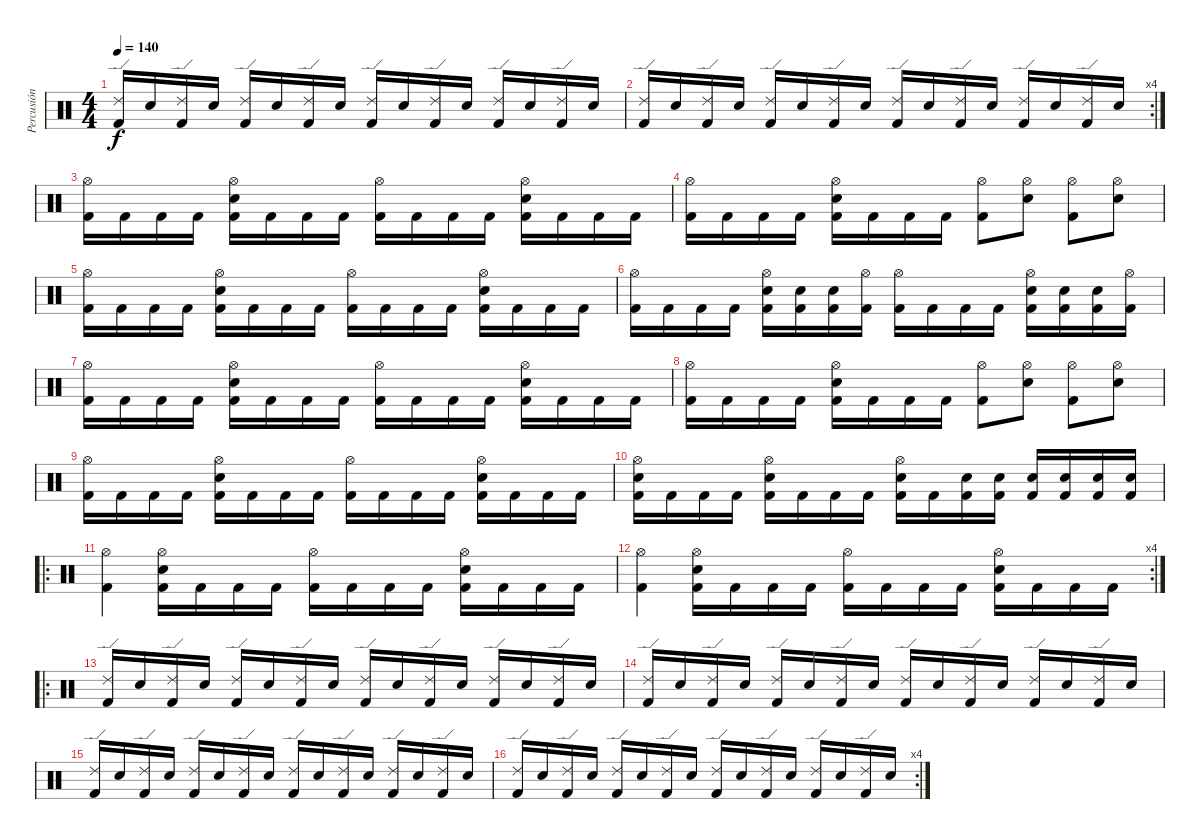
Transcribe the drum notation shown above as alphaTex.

\track ("Percusión" "Percusión") {instrument percussion}
\staff {score}
\articulation defaults
\ts (4 4)
\tempo 140
\clef neutral
\ks c
("Kick (hit) 2" "Ride (edge) 2").16{dy f} "Electric Snare (hit)".16 ("Kick (hit) 2" "Ride (edge) 2").16 "Electric Snare (hit)".16 ("Kick (hit) 2" "Ride (edge) 2").16 "Electric Snare (hit)".16 ("Kick (hit) 2" "Ride (edge) 2").16 "Electric Snare (hit)".16 ("Kick (hit) 2" "Ride (edge) 2").16 "Electric Snare (hit)".16 ("Kick (hit) 2" "Ride (edge) 2").16 "Electric Snare (hit)".16 ("Kick (hit) 2" "Ride (edge) 2").16 "Electric Snare (hit)".16 ("Kick (hit) 2" "Ride (edge) 2").16 "Electric Snare (hit)".16 |
\rc 4
("Kick (hit) 2" "Ride (edge) 2").16 "Electric Snare (hit)".16 ("Kick (hit) 2" "Ride (edge) 2").16 "Electric Snare (hit)".16 ("Kick (hit) 2" "Ride (edge) 2").16 "Electric Snare (hit)".16 ("Kick (hit) 2" "Ride (edge) 2").16 "Electric Snare (hit)".16 ("Kick (hit) 2" "Ride (edge) 2").16 "Electric Snare (hit)".16 ("Kick (hit) 2" "Ride (edge) 2").16 "Electric Snare (hit)".16 ("Kick (hit) 2" "Ride (edge) 2").16 "Electric Snare (hit)".16 ("Kick (hit) 2" "Ride (edge) 2").16 "Electric Snare (hit)".16 |
("Kick (hit) 2" "Hi-Hat (open)").16 "Kick (hit) 2".16 "Kick (hit) 2".16 "Kick (hit) 2".16 ("Kick (hit) 2" "Electric Snare (hit)" "Hi-Hat (open)").16 "Kick (hit) 2".16 "Kick (hit) 2".16 "Kick (hit) 2".16 ("Kick (hit) 2" "Hi-Hat (open)").16 "Kick (hit) 2".16 "Kick (hit) 2".16 "Kick (hit) 2".16 ("Kick (hit) 2" "Electric Snare (hit)" "Hi-Hat (open)").16 "Kick (hit) 2".16 "Kick (hit) 2".16 "Kick (hit) 2".16 |
("Kick (hit) 2" "Hi-Hat (open)").16 "Kick (hit) 2".16 "Kick (hit) 2".16 "Kick (hit) 2".16 ("Kick (hit) 2" "Electric Snare (hit)" "Hi-Hat (open)").16 "Kick (hit) 2".16 "Kick (hit) 2".16 "Kick (hit) 2".16 ("Kick (hit) 2" "Hi-Hat (open)").8 ("Electric Snare (hit)" "Hi-Hat (open)").8 ("Kick (hit) 2" "Hi-Hat (open)").8 ("Electric Snare (hit)" "Hi-Hat (open)").8 |
("Kick (hit) 2" "Hi-Hat (open)").16 "Kick (hit) 2".16 "Kick (hit) 2".16 "Kick (hit) 2".16 ("Kick (hit) 2" "Electric Snare (hit)" "Hi-Hat (open)").16 "Kick (hit) 2".16 "Kick (hit) 2".16 "Kick (hit) 2".16 ("Kick (hit) 2" "Hi-Hat (open)").16 "Kick (hit) 2".16 "Kick (hit) 2".16 "Kick (hit) 2".16 ("Kick (hit) 2" "Electric Snare (hit)" "Hi-Hat (open)").16 "Kick (hit) 2".16 "Kick (hit) 2".16 "Kick (hit) 2".16 |
("Kick (hit) 2" "Hi-Hat (open)").16 "Kick (hit) 2".16 "Kick (hit) 2".16 "Kick (hit) 2".16 ("Kick (hit) 2" "Electric Snare (hit)" "Hi-Hat (open)").16 ("Kick (hit) 2" "Electric Snare (hit)").16 ("Kick (hit) 2" "Electric Snare (hit)").16 ("Kick (hit) 2" "Hi-Hat (open)").16 ("Kick (hit) 2" "Hi-Hat (open)").16 "Kick (hit) 2".16 "Kick (hit) 2".16 "Kick (hit) 2".16 ("Kick (hit) 2" "Electric Snare (hit)" "Hi-Hat (open)").16 ("Kick (hit) 2" "Electric Snare (hit)").16 ("Kick (hit) 2" "Electric Snare (hit)").16 ("Kick (hit) 2" "Hi-Hat (open)").16 |
("Kick (hit) 2" "Hi-Hat (open)").16 "Kick (hit) 2".16 "Kick (hit) 2".16 "Kick (hit) 2".16 ("Kick (hit) 2" "Electric Snare (hit)" "Hi-Hat (open)").16 "Kick (hit) 2".16 "Kick (hit) 2".16 "Kick (hit) 2".16 ("Kick (hit) 2" "Hi-Hat (open)").16 "Kick (hit) 2".16 "Kick (hit) 2".16 "Kick (hit) 2".16 ("Kick (hit) 2" "Electric Snare (hit)" "Hi-Hat (open)").16 "Kick (hit) 2".16 "Kick (hit) 2".16 "Kick (hit) 2".16 |
("Kick (hit) 2" "Hi-Hat (open)").16 "Kick (hit) 2".16 "Kick (hit) 2".16 "Kick (hit) 2".16 ("Kick (hit) 2" "Electric Snare (hit)" "Hi-Hat (open)").16 "Kick (hit) 2".16 "Kick (hit) 2".16 "Kick (hit) 2".16 ("Kick (hit) 2" "Hi-Hat (open)").8 ("Electric Snare (hit)" "Hi-Hat (open)").8 ("Kick (hit) 2" "Hi-Hat (open)").8 ("Electric Snare (hit)" "Hi-Hat (open)").8 |
("Kick (hit) 2" "Hi-Hat (open)").16 "Kick (hit) 2".16 "Kick (hit) 2".16 "Kick (hit) 2".16 ("Kick (hit) 2" "Electric Snare (hit)" "Hi-Hat (open)").16 "Kick (hit) 2".16 "Kick (hit) 2".16 "Kick (hit) 2".16 ("Kick (hit) 2" "Hi-Hat (open)").16 "Kick (hit) 2".16 "Kick (hit) 2".16 "Kick (hit) 2".16 ("Kick (hit) 2" "Electric Snare (hit)" "Hi-Hat (open)").16 "Kick (hit) 2".16 "Kick (hit) 2".16 "Kick (hit) 2".16 |
("Kick (hit) 2" "Electric Snare (hit)" "Hi-Hat (open)").16 "Kick (hit) 2".16 "Kick (hit) 2".16 "Kick (hit) 2".16 ("Kick (hit) 2" "Electric Snare (hit)" "Hi-Hat (open)").16 "Kick (hit) 2".16 "Kick (hit) 2".16 "Kick (hit) 2".16 ("Kick (hit) 2" "Electric Snare (hit)" "Hi-Hat (open)").16 "Kick (hit) 2".16 ("Kick (hit) 2" "Electric Snare (hit)").16 ("Kick (hit) 2" "Electric Snare (hit)").16 ("Kick (hit) 2" "Electric Snare (hit)").16 ("Kick (hit) 2" "Electric Snare (hit)").16 ("Kick (hit) 2" "Electric Snare (hit)").16 ("Kick (hit) 2" "Electric Snare (hit)").16 |
\ro
("Kick (hit) 2" "Hi-Hat (open)").4 ("Kick (hit) 2" "Electric Snare (hit)" "Hi-Hat (open)").16 "Kick (hit) 2".16 "Kick (hit) 2".16 "Kick (hit) 2".16 ("Kick (hit) 2" "Hi-Hat (open)").16 "Kick (hit) 2".16 "Kick (hit) 2".16 "Kick (hit) 2".16 ("Kick (hit) 2" "Electric Snare (hit)" "Hi-Hat (open)").16 "Kick (hit) 2".16 "Kick (hit) 2".16 "Kick (hit) 2".16 |
\rc 4
("Kick (hit) 2" "Hi-Hat (open)").4 ("Kick (hit) 2" "Electric Snare (hit)" "Hi-Hat (open)").16 "Kick (hit) 2".16 "Kick (hit) 2".16 "Kick (hit) 2".16 ("Kick (hit) 2" "Hi-Hat (open)").16 "Kick (hit) 2".16 "Kick (hit) 2".16 "Kick (hit) 2".16 ("Kick (hit) 2" "Electric Snare (hit)" "Hi-Hat (open)").16 "Kick (hit) 2".16 "Kick (hit) 2".16 "Kick (hit) 2".16 |
\ro
("Kick (hit) 2" "Ride (edge) 2").16 "Electric Snare (hit)".16 ("Kick (hit) 2" "Ride (edge) 2").16 "Electric Snare (hit)".16 ("Kick (hit) 2" "Ride (edge) 2").16 "Electric Snare (hit)".16 ("Kick (hit) 2" "Ride (edge) 2").16 "Electric Snare (hit)".16 ("Kick (hit) 2" "Ride (edge) 2").16 "Electric Snare (hit)".16 ("Kick (hit) 2" "Ride (edge) 2").16 "Electric Snare (hit)".16 ("Kick (hit) 2" "Ride (edge) 2").16 "Electric Snare (hit)".16 ("Kick (hit) 2" "Ride (edge) 2").16 "Electric Snare (hit)".16 |
("Kick (hit) 2" "Ride (edge) 2").16 "Electric Snare (hit)".16 ("Kick (hit) 2" "Ride (edge) 2").16 "Electric Snare (hit)".16 ("Kick (hit) 2" "Ride (edge) 2").16 "Electric Snare (hit)".16 ("Kick (hit) 2" "Ride (edge) 2").16 "Electric Snare (hit)".16 ("Kick (hit) 2" "Ride (edge) 2").16 "Electric Snare (hit)".16 ("Kick (hit) 2" "Ride (edge) 2").16 "Electric Snare (hit)".16 ("Kick (hit) 2" "Ride (edge) 2").16 "Electric Snare (hit)".16 ("Kick (hit) 2" "Ride (edge) 2").16 "Electric Snare (hit)".16 |
("Kick (hit) 2" "Ride (edge) 2").16 "Electric Snare (hit)".16 ("Kick (hit) 2" "Ride (edge) 2").16 "Electric Snare (hit)".16 ("Kick (hit) 2" "Ride (edge) 2").16 "Electric Snare (hit)".16 ("Kick (hit) 2" "Ride (edge) 2").16 "Electric Snare (hit)".16 ("Kick (hit) 2" "Ride (edge) 2").16 "Electric Snare (hit)".16 ("Kick (hit) 2" "Ride (edge) 2").16 "Electric Snare (hit)".16 ("Kick (hit) 2" "Ride (edge) 2").16 "Electric Snare (hit)".16 ("Kick (hit) 2" "Ride (edge) 2").16 "Electric Snare (hit)".16 |
\rc 4
("Kick (hit) 2" "Ride (edge) 2").16 "Electric Snare (hit)".16 ("Kick (hit) 2" "Ride (edge) 2").16 "Electric Snare (hit)".16 ("Kick (hit) 2" "Ride (edge) 2").16 "Electric Snare (hit)".16 ("Kick (hit) 2" "Ride (edge) 2").16 "Electric Snare (hit)".16 ("Kick (hit) 2" "Ride (edge) 2").16 "Electric Snare (hit)".16 ("Kick (hit) 2" "Ride (edge) 2").16 "Electric Snare (hit)".16 ("Kick (hit) 2" "Ride (edge) 2").16 "Electric Snare (hit)".16 ("Kick (hit) 2" "Ride (edge) 2").16 "Electric Snare (hit)".16
